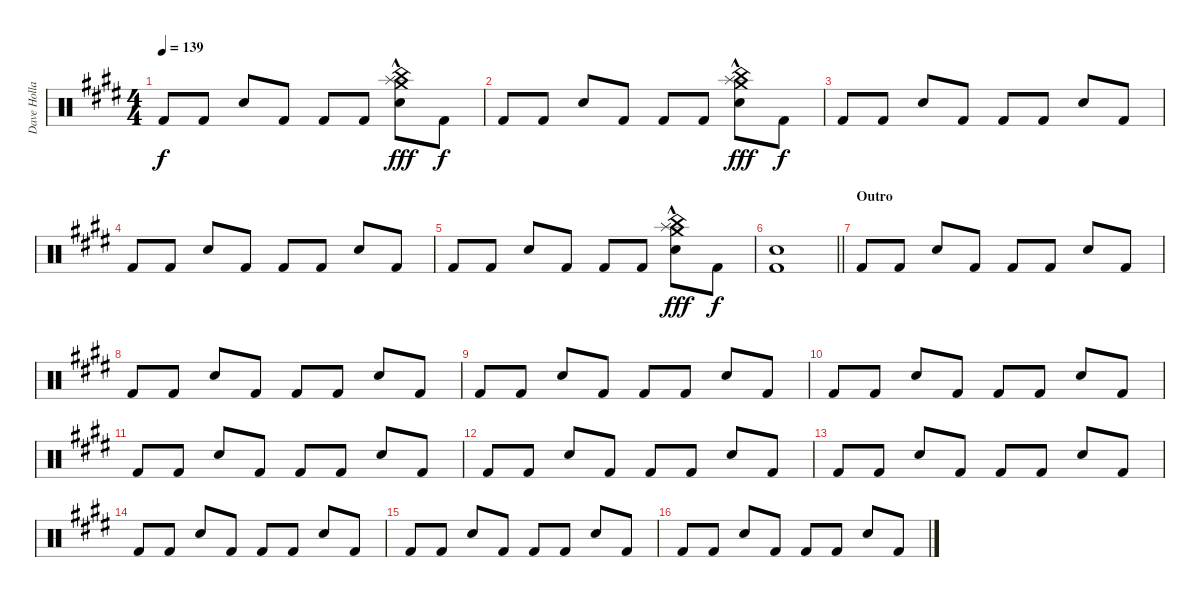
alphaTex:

\track ("Dave Holland" "Dave Holla") {instrument percussion}
\staff {score}
\articulation defaults
\ts (4 4)
\tempo 139
\clef neutral
\ks c#minor "Kick (hit) 2".8{dy f} "Kick (hit) 2".8 "Snare (hit) 2".8 "Kick (hit) 2".8 "Kick (hit) 2".8 "Kick (hit) 2".8
("Crash medium (hit)" "China (hit)" "Splash (hit)"{hac} "Snare (hit) 2").8{dy fff} "Kick (hit) 2".8{dy f} |
"Kick (hit) 2".8 "Kick (hit) 2".8 "Snare (hit) 2".8 "Kick (hit) 2".8 "Kick (hit) 2".8 "Kick (hit) 2".8 ("China (hit)" "Splash (hit)"{hac} "Crash medium (hit)" "Snare (hit) 2").8{dy fff} "Kick (hit) 2".8{dy f} |
"Kick (hit) 2".8 "Kick (hit) 2".8 "Snare (hit) 2".8 "Kick (hit) 2".8 "Kick (hit) 2".8 "Kick (hit) 2".8 "Snare (hit) 2".8 "Kick (hit) 2".8 |
"Kick (hit) 2".8 "Kick (hit) 2".8 "Snare (hit) 2".8 "Kick (hit) 2".8 "Kick (hit) 2".8 "Kick (hit) 2".8 "Snare (hit) 2".8 "Kick (hit) 2".8 |
"Kick (hit) 2".8 "Kick (hit) 2".8 "Snare (hit) 2".8 "Kick (hit) 2".8 "Kick (hit) 2".8 "Kick (hit) 2".8 ("Splash (hit)"{hac} "China (hit)"{hac} "Crash medium (hit)"{hac} "Snare (hit) 2").8{dy fff} "Kick (hit) 2".8{dy f} |
\barLineRight lightlight
("Snare (hit) 2" "Kick (hit) 2").1 |
\section ("" "Outro")
"Kick (hit) 2".8 "Kick (hit) 2".8 "Snare (hit) 2".8 "Kick (hit) 2".8 "Kick (hit) 2".8 "Kick (hit) 2".8 "Snare (hit) 2".8 "Kick (hit) 2".8 |
"Kick (hit) 2".8 "Kick (hit) 2".8 "Snare (hit) 2".8 "Kick (hit) 2".8 "Kick (hit) 2".8 "Kick (hit) 2".8 "Snare (hit) 2".8 "Kick (hit) 2".8 |
"Kick (hit) 2".8 "Kick (hit) 2".8 "Snare (hit) 2".8 "Kick (hit) 2".8 "Kick (hit) 2".8 "Kick (hit) 2".8 "Snare (hit) 2".8 "Kick (hit) 2".8 |
"Kick (hit) 2".8 "Kick (hit) 2".8 "Snare (hit) 2".8 "Kick (hit) 2".8 "Kick (hit) 2".8 "Kick (hit) 2".8 "Snare (hit) 2".8 "Kick (hit) 2".8 |
"Kick (hit) 2".8 "Kick (hit) 2".8 "Snare (hit) 2".8 "Kick (hit) 2".8 "Kick (hit) 2".8 "Kick (hit) 2".8 "Snare (hit) 2".8 "Kick (hit) 2".8 |
"Kick (hit) 2".8 "Kick (hit) 2".8 "Snare (hit) 2".8 "Kick (hit) 2".8 "Kick (hit) 2".8 "Kick (hit) 2".8 "Snare (hit) 2".8 "Kick (hit) 2".8 |
"Kick (hit) 2".8 "Kick (hit) 2".8 "Snare (hit) 2".8 "Kick (hit) 2".8 "Kick (hit) 2".8 "Kick (hit) 2".8 "Snare (hit) 2".8 "Kick (hit) 2".8 |
"Kick (hit) 2".8 "Kick (hit) 2".8 "Snare (hit) 2".8 "Kick (hit) 2".8 "Kick (hit) 2".8 "Kick (hit) 2".8 "Snare (hit) 2".8 "Kick (hit) 2".8 |
"Kick (hit) 2".8 "Kick (hit) 2".8 "Snare (hit) 2".8 "Kick (hit) 2".8 "Kick (hit) 2".8 "Kick (hit) 2".8 "Snare (hit) 2".8 "Kick (hit) 2".8 |
"Kick (hit) 2".8 "Kick (hit) 2".8 "Snare (hit) 2".8 "Kick (hit) 2".8 "Kick (hit) 2".8 "Kick (hit) 2".8 "Snare (hit) 2".8 "Kick (hit) 2".8
